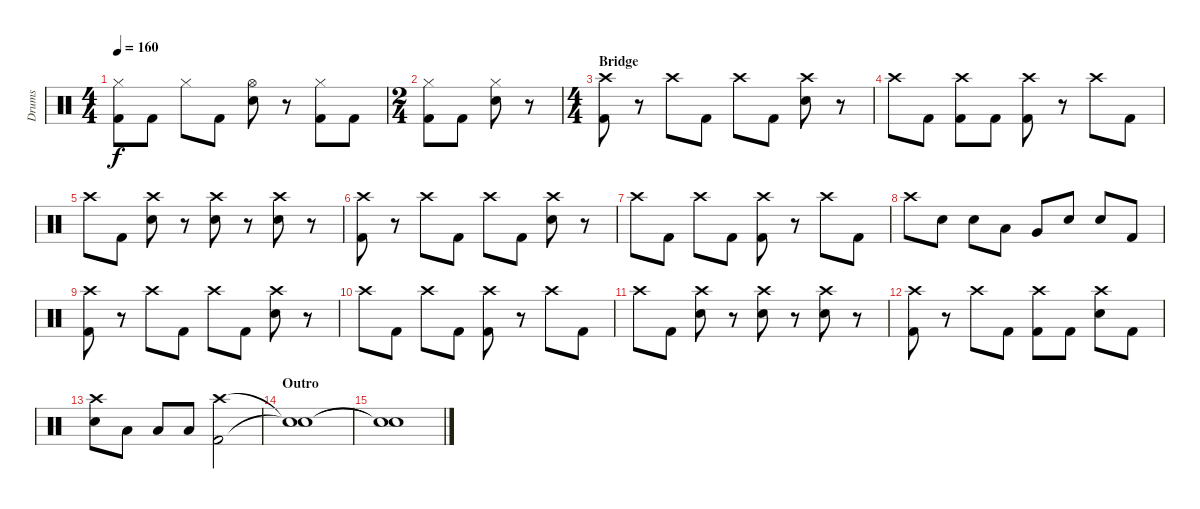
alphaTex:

\track ("Drums" "Drums") {instrument percussion}
\staff {score}
\articulation defaults
\ts (4 4)
\tempo 160
\clef neutral
\ks c
("Kick (hit) 2" "Hi-Hat (closed)").8{dy f} "Kick (hit) 2".8 "Hi-Hat (closed)".8 "Kick (hit) 2".8 ("Electric Snare (hit)" "Hi-Hat (open)").8 r.8 ("Kick (hit) 2" "Hi-Hat (closed)").8 "Kick (hit) 2".8 |
\ts (2 4)
("Kick (hit) 2" "Hi-Hat (closed)").8 "Kick (hit) 2".8 ("Electric Snare (hit)" "Hi-Hat (closed)").8 r.8 |
\ts (4 4)
\section ("" "Bridge")
("Kick (hit) 2" "Crash high (hit)").8 r.8 "Crash high (hit)".8 "Kick (hit) 2".8 "Crash high (hit)".8 "Kick (hit) 2".8 ("Electric Snare (hit)" "Crash high (hit)").8 r.8 |
"Crash high (hit)".8 "Kick (hit) 2".8 ("Kick (hit) 2" "Crash high (hit)").8 "Kick (hit) 2".8 ("Kick (hit) 2" "Crash high (hit)").8 r.8 "Crash high (hit)".8 "Kick (hit) 2".8 |
"Crash high (hit)".8 "Kick (hit) 2".8 ("Electric Snare (hit)" "Crash high (hit)").8 r.8 ("Electric Snare (hit)" "Crash high (hit)").8 r.8 ("Electric Snare (hit)" "Crash high (hit)").8 r.8 |
("Kick (hit) 2" "Crash high (hit)").8 r.8 "Crash high (hit)".8 "Kick (hit) 2".8 "Crash high (hit)".8 "Kick (hit) 2".8 ("Electric Snare (hit)" "Crash high (hit)").8 r.8 |
"Crash high (hit)".8 "Kick (hit) 2".8 "Crash high (hit)".8 "Kick (hit) 2".8 ("Kick (hit) 2" "Crash high (hit)").8 r.8 "Crash high (hit)".8 "Kick (hit) 2".8 |
"Crash high (hit)".8 "Electric Snare (hit)".8 "Electric Snare (hit)".8 "Low Tom (hit)".8 "Very Low Tom (hit)".8 "Electric Snare (hit)".8 "Electric Snare (hit)".8 "Kick (hit) 2".8 |
("Kick (hit) 2" "Crash high (hit)").8 r.8 "Crash high (hit)".8 "Kick (hit) 2".8 "Crash high (hit)".8 "Kick (hit) 2".8 ("Electric Snare (hit)" "Crash high (hit)").8 r.8 |
"Crash high (hit)".8 "Kick (hit) 2".8 "Crash high (hit)".8 "Kick (hit) 2".8 ("Kick (hit) 2" "Crash high (hit)").8 r.8 "Crash high (hit)".8 "Kick (hit) 2".8 |
"Crash high (hit)".8 "Kick (hit) 2".8 ("Electric Snare (hit)" "Crash high (hit)").8 r.8 ("Electric Snare (hit)" "Crash high (hit)").8 r.8 ("Electric Snare (hit)" "Crash high (hit)").8 r.8 |
("Kick (hit) 2" "Crash high (hit)").8 r.8 "Crash high (hit)".8 "Kick (hit) 2".8 ("Kick (hit) 2" "Crash high (hit)").8 "Kick (hit) 2".8 ("Electric Snare (hit)" "Crash high (hit)").8 "Kick (hit) 2".8 |
("Electric Snare (hit)" "Crash high (hit)").8 "Low Tom (hit)".8 "Low Tom (hit)".8 "Low Tom (hit)".8 ("Kick (hit) 2" "Crash high (hit)").2 |
\section ("" "Outro")
("Snare (hit)"{t} "Snare (hit)"{t}).1 |
("Snare (hit)"{t} "Snare (hit)"{t}).1
